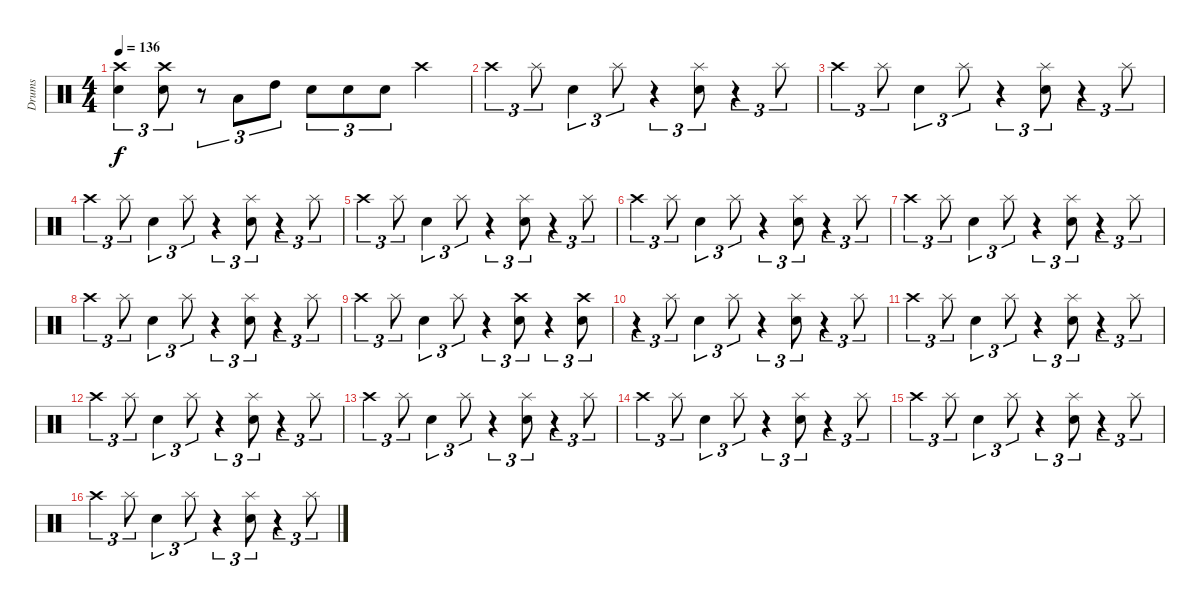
\track ("Drums" "Drums") {instrument percussion}
\staff {score}
\articulation defaults
\ts (4 4)
\tempo 136
\clef neutral
\ks c
("Crash high (hit)" "Snare (hit) 2").4{tu (3 2) dy f} ("Crash high (hit)" "Snare (hit) 2").8{tu (3 2)} r.8{tu (3 2)} "Low Tom (hit)".8{tu (3 2)} "High Tom (hit)".8{tu (3 2)} "Snare (hit) 2".8{tu (3 2)} "Snare (hit) 2".8{tu (3 2)} "Snare (hit) 2".8{tu (3 2)} "Crash high (hit)".4 |
"Crash high (hit)".4{tu (3 2)} "Splash (hit)".8{tu (3 2)} "Snare (hit) 2".4{tu (3 2)} "Splash (hit)".8{tu (3 2)} r.4{tu (3 2)} ("Splash (hit)" "Snare (hit) 2").8{tu (3 2)} r.4{tu (3 2)} "Splash (hit)".8{tu (3 2)} |
"Crash high (hit)".4{tu (3 2)} "Splash (hit)".8{tu (3 2)} "Snare (hit) 2".4{tu (3 2)} "Splash (hit)".8{tu (3 2)} r.4{tu (3 2)} ("Splash (hit)" "Snare (hit) 2").8{tu (3 2)} r.4{tu (3 2)} "Splash (hit)".8{tu (3 2)} |
"Crash high (hit)".4{tu (3 2)} "Splash (hit)".8{tu (3 2)} "Snare (hit) 2".4{tu (3 2)} "Splash (hit)".8{tu (3 2)} r.4{tu (3 2)} ("Splash (hit)" "Snare (hit) 2").8{tu (3 2)} r.4{tu (3 2)} "Splash (hit)".8{tu (3 2)} |
"Crash high (hit)".4{tu (3 2)} "Splash (hit)".8{tu (3 2)} "Snare (hit) 2".4{tu (3 2)} "Splash (hit)".8{tu (3 2)} r.4{tu (3 2)} ("Splash (hit)" "Snare (hit) 2").8{tu (3 2)} r.4{tu (3 2)} "Splash (hit)".8{tu (3 2)} |
"Crash high (hit)".4{tu (3 2)} "Splash (hit)".8{tu (3 2)} "Snare (hit) 2".4{tu (3 2)} "Splash (hit)".8{tu (3 2)} r.4{tu (3 2)} ("Splash (hit)" "Snare (hit) 2").8{tu (3 2)} r.4{tu (3 2)} "Splash (hit)".8{tu (3 2)} |
"Crash high (hit)".4{tu (3 2)} "Splash (hit)".8{tu (3 2)} "Snare (hit) 2".4{tu (3 2)} "Splash (hit)".8{tu (3 2)} r.4{tu (3 2)} ("Splash (hit)" "Snare (hit) 2").8{tu (3 2)} r.4{tu (3 2)} "Splash (hit)".8{tu (3 2)} |
"Crash high (hit)".4{tu (3 2)} "Splash (hit)".8{tu (3 2)} "Snare (hit) 2".4{tu (3 2)} "Splash (hit)".8{tu (3 2)} r.4{tu (3 2)} ("Splash (hit)" "Snare (hit) 2").8{tu (3 2)} r.4{tu (3 2)} "Splash (hit)".8{tu (3 2)} |
"Crash high (hit)".4{tu (3 2)} "Splash (hit)".8{tu (3 2)} "Snare (hit) 2".4{tu (3 2)} "Splash (hit)".8{tu (3 2)} r.4{tu (3 2)} ("Crash high (hit)" "Snare (hit) 2").8{tu (3 2)} r.4{tu (3 2)} ("Crash high (hit)" "Snare (hit) 2").8{tu (3 2)} |
r.4{tu (3 2)} "Splash (hit)".8{tu (3 2)} "Snare (hit) 2".4{tu (3 2)} "Splash (hit)".8{tu (3 2)} r.4{tu (3 2)} ("Splash (hit)" "Snare (hit) 2").8{tu (3 2)} r.4{tu (3 2)} "Splash (hit)".8{tu (3 2)} |
"Crash high (hit)".4{tu (3 2)} "Splash (hit)".8{tu (3 2)} "Snare (hit) 2".4{tu (3 2)} "Splash (hit)".8{tu (3 2)} r.4{tu (3 2)} ("Splash (hit)" "Snare (hit) 2").8{tu (3 2)} r.4{tu (3 2)} "Splash (hit)".8{tu (3 2)} |
"Crash high (hit)".4{tu (3 2)} "Splash (hit)".8{tu (3 2)} "Snare (hit) 2".4{tu (3 2)} "Splash (hit)".8{tu (3 2)} r.4{tu (3 2)} ("Splash (hit)" "Snare (hit) 2").8{tu (3 2)} r.4{tu (3 2)} "Splash (hit)".8{tu (3 2)} |
"Crash high (hit)".4{tu (3 2)} "Splash (hit)".8{tu (3 2)} "Snare (hit) 2".4{tu (3 2)} "Splash (hit)".8{tu (3 2)} r.4{tu (3 2)} ("Splash (hit)" "Snare (hit) 2").8{tu (3 2)} r.4{tu (3 2)} "Splash (hit)".8{tu (3 2)} |
"Crash high (hit)".4{tu (3 2)} "Splash (hit)".8{tu (3 2)} "Snare (hit) 2".4{tu (3 2)} "Splash (hit)".8{tu (3 2)} r.4{tu (3 2)} ("Splash (hit)" "Snare (hit) 2").8{tu (3 2)} r.4{tu (3 2)} "Splash (hit)".8{tu (3 2)} |
"Crash high (hit)".4{tu (3 2)} "Splash (hit)".8{tu (3 2)} "Snare (hit) 2".4{tu (3 2)} "Splash (hit)".8{tu (3 2)} r.4{tu (3 2)} ("Splash (hit)" "Snare (hit) 2").8{tu (3 2)} r.4{tu (3 2)} "Splash (hit)".8{tu (3 2)} |
"Crash high (hit)".4{tu (3 2)} "Splash (hit)".8{tu (3 2)} "Snare (hit) 2".4{tu (3 2)} "Splash (hit)".8{tu (3 2)} r.4{tu (3 2)} ("Splash (hit)" "Snare (hit) 2").8{tu (3 2)} r.4{tu (3 2)} "Splash (hit)".8{tu (3 2)}
